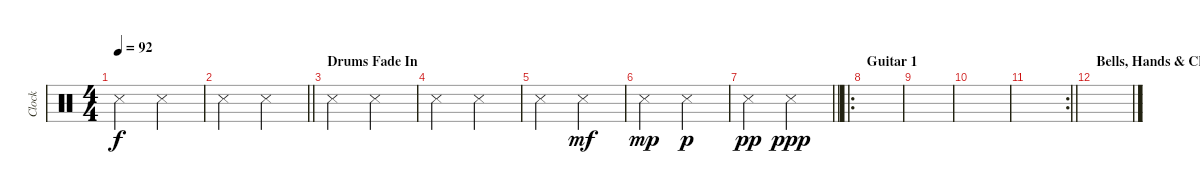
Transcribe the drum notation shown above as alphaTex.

\track ("Clock" "Clock") {instrument percussion}
\staff {score}
\articulation defaults
\ts (4 4)
\tempo 92
\clef neutral
\ks c "Snare (side stick) 3".2{dy f} "Snare (side stick) 3".2
|
\barLineRight lightlight "Snare (side stick) 3".2 "Snare (side stick) 3".2
|
\section ("" "Drums Fade In")
"Snare (side stick) 3".2 "Snare (side stick) 3".2 |
"Snare (side stick) 3".2 "Snare (side stick) 3".2 |
"Snare (side stick) 3".2 "Snare (side stick) 3".2{dy mf} |
"Snare (side stick) 3".2{dy mp} "Snare (side stick) 3".2{dy p} |
\barLineRight lightlight "Snare (side stick) 3".2{dy pp} "Snare (side stick) 3".2{dy ppp}
|
\ro
\section ("" "Guitar 1")
|
|
|
\rc 2
\barLineRight lightlight
|
\section ("" "Bells, Hands & Choir")
